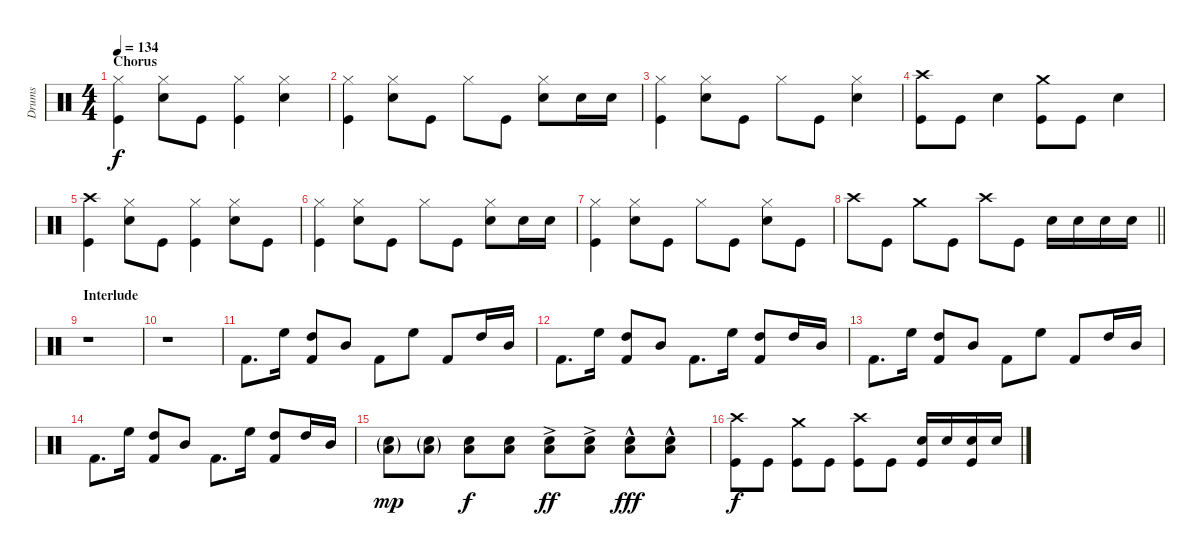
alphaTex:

\track ("Drums" "Drums") {instrument percussion}
\staff {score}
\articulation defaults
\ts (4 4)
\section ("" "Chorus")
\tempo 134
\clef neutral
\ks c
("Hi-Hat (closed)" "Kick (hit)").4{dy f} ("Hi-Hat (closed)" "Snare (hit) 2").8 "Kick (hit)".8 ("Hi-Hat (closed)" "Kick (hit)").4 ("Hi-Hat (closed)" "Snare (hit) 2").4 |
("Hi-Hat (closed)" "Kick (hit)").4 ("Hi-Hat (closed)" "Snare (hit) 2").8 "Kick (hit)".8 "Hi-Hat (closed)".8 "Kick (hit)".8 ("Hi-Hat (closed)" "Snare (hit) 2").8 "Snare (hit) 2".16 "Snare (hit) 2".16 |
("Hi-Hat (closed)" "Kick (hit)").4 ("Hi-Hat (closed)" "Snare (hit) 2").8 "Kick (hit)".8 "Hi-Hat (closed)".8 "Kick (hit)".8 ("Hi-Hat (closed)" "Snare (hit) 2").4 |
("Crash high (hit)" "Kick (hit)").8 "Kick (hit)".8 "Snare (hit) 2".4 ("Crash medium (hit)" "Kick (hit)").8 "Kick (hit)".8 "Snare (hit) 2".4 |
("Crash high (hit)" "Kick (hit)").4 ("Hi-Hat (closed)" "Snare (hit) 2").8 "Kick (hit)".8 ("Hi-Hat (closed)" "Kick (hit)").4 ("Hi-Hat (closed)" "Snare (hit) 2").8 "Kick (hit)".8 |
("Hi-Hat (closed)" "Kick (hit)").4 ("Hi-Hat (closed)" "Snare (hit) 2").8 "Kick (hit)".8 "Hi-Hat (closed)".8 "Kick (hit)".8 ("Hi-Hat (closed)" "Snare (hit) 2").8 "Snare (hit) 2".16 "Snare (hit) 2".16 |
("Hi-Hat (closed)" "Kick (hit)").4 ("Hi-Hat (closed)" "Snare (hit) 2").8 "Kick (hit)".8 "Hi-Hat (closed)".8 "Kick (hit)".8 ("Hi-Hat (closed)" "Snare (hit) 2").8 "Kick (hit)".8 |
\barLineRight lightlight "Crash high (hit)".8 "Kick (hit)".8 "Crash medium (hit)".8 "Kick (hit)".8 "Crash high (hit)".8 "Kick (hit)".8 "Snare (hit) 2".16 "Snare (hit) 2".16 "Snare (hit) 2".16 "Snare (hit) 2".16
|
\section ("" "Interlude")
r.1 |
r.1 |
"Kick (hit) 2".8{d} "High Floor Tom (hit)".16 ("High Tom (hit)" "Kick (hit) 2").8 "Mid Tom (hit)".8 "Kick (hit) 2".8 "High Floor Tom (hit)".8 "Kick (hit) 2".8 "High Tom (hit)".16 "Mid Tom (hit)".16 |
"Kick (hit) 2".8{d} "High Floor Tom (hit)".16 ("High Tom (hit)" "Kick (hit) 2").8 "Mid Tom (hit)".8 "Kick (hit) 2".8{d} "High Floor Tom (hit)".16 ("High Tom (hit)" "Kick (hit) 2").8 "High Tom (hit)".16 "Mid Tom (hit)".16 |
"Kick (hit) 2".8{d} "High Floor Tom (hit)".16 ("High Tom (hit)" "Kick (hit) 2").8 "Mid Tom (hit)".8 "Kick (hit) 2".8 "High Floor Tom (hit)".8 "Kick (hit) 2".8 "High Tom (hit)".16 "Mid Tom (hit)".16 |
"Kick (hit) 2".8{d} "High Floor Tom (hit)".16 ("High Tom (hit)" "Kick (hit) 2").8 "Mid Tom (hit)".8 "Kick (hit) 2".8{d} "High Floor Tom (hit)".16 ("High Tom (hit)" "Kick (hit) 2").8 "High Tom (hit)".16 "Mid Tom (hit)".16 |
("Low Floor Tom (hit)"{g} "Snare (hit) 2"{g}).8{dy mp} ("Low Floor Tom (hit)"{g} "Snare (hit) 2"{g}).8 ("Low Floor Tom (hit)" "Snare (hit) 2").8{dy f} ("Low Floor Tom (hit)" "Snare (hit) 2").8 ("Low Floor Tom (hit)"{ac} "Snare (hit) 2"{ac}).8{dy ff} ("Low Floor Tom (hit)"{ac} "Snare (hit) 2"{ac}).8 ("Low Floor Tom (hit)"{hac} "Snare (hit) 2"{hac}).8{dy fff} ("Low Floor Tom (hit)"{hac} "Snare (hit) 2"{hac}).8 |
("Crash high (hit)" "Kick (hit)").8{dy f} "Kick (hit)".8 ("Crash medium (hit)" "Kick (hit)").8 "Kick (hit)".8 ("Crash high (hit)" "Kick (hit)").8 "Kick (hit)".8 ("Snare (hit) 2" "Kick (hit)").16 "Snare (hit) 2".16 ("Snare (hit) 2" "Kick (hit)").16 "Snare (hit) 2".16
